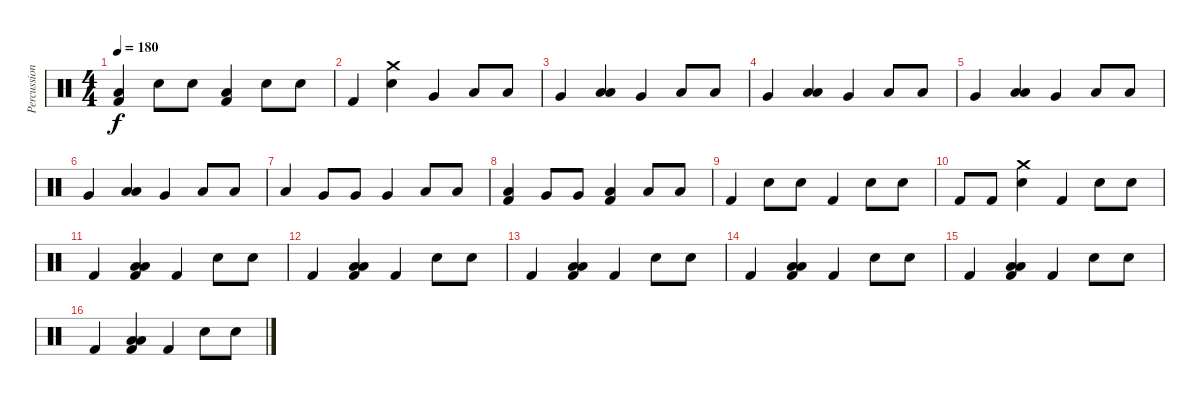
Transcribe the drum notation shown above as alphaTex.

\track ("Percussion" "Percussion") {instrument percussion}
\staff {score}
\articulation defaults
\ts (4 4)
\tempo 180
\clef neutral
\ks c
("Low Floor Tom (hit)" "Kick (hit) 2").4{dy f} "Snare (hit) 2".8 "Snare (hit) 2".8 ("Low Floor Tom (hit)" "Kick (hit) 2").4 "Snare (hit) 2".8 "Snare (hit) 2".8 |
"Kick (hit) 2".4 ("Crash medium (hit)" "Snare (hit) 2").4 "Very Low Tom (hit)".4 "Low Tom (hit)".8 "Low Tom (hit)".8 |
"Very Low Tom (hit)".4 ("Low Floor Tom (hit)" "Low Floor Tom (hit)").4 "Very Low Tom (hit)".4 "Low Tom (hit)".8 "Low Tom (hit)".8 |
"Very Low Tom (hit)".4 ("Low Floor Tom (hit)" "Low Floor Tom (hit)").4 "Very Low Tom (hit)".4 "Low Tom (hit)".8 "Low Tom (hit)".8 |
"Very Low Tom (hit)".4 ("Low Floor Tom (hit)" "Low Floor Tom (hit)").4 "Very Low Tom (hit)".4 "Low Tom (hit)".8 "Low Tom (hit)".8 |
"Very Low Tom (hit)".4 ("Low Floor Tom (hit)" "Low Floor Tom (hit)").4 "Very Low Tom (hit)".4 "Low Tom (hit)".8 "Low Tom (hit)".8 |
"Low Tom (hit)".4 "Very Low Tom (hit)".8 "Very Low Tom (hit)".8 "Very Low Tom (hit)".4 "Low Floor Tom (hit)".8 "Low Floor Tom (hit)".8 |
("Low Floor Tom (hit)" "Kick (hit) 2").4 "Very Low Tom (hit)".8 "Very Low Tom (hit)".8 ("Low Floor Tom (hit)" "Kick (hit) 2").4 "Low Tom (hit)".8 "Low Tom (hit)".8 |
"Kick (hit) 2".4 "Snare (hit) 2".8 "Snare (hit) 2".8 "Kick (hit) 2".4 "Snare (hit) 2".8 "Snare (hit) 2".8 |
"Kick (hit) 2".8 "Kick (hit) 2".8 ("Crash medium (hit)" "Snare (hit) 2").4 "Kick (hit) 2".4 "Snare (hit) 2".8 "Snare (hit) 2".8 |
"Kick (hit) 2".4 ("Low Floor Tom (hit)" "Low Floor Tom (hit)" "Kick (hit) 2").4 "Kick (hit) 2".4 "Snare (hit) 2".8 "Snare (hit) 2".8 |
"Kick (hit) 2".4 ("Low Floor Tom (hit)" "Low Floor Tom (hit)" "Kick (hit) 2").4 "Kick (hit) 2".4 "Snare (hit) 2".8 "Snare (hit) 2".8 |
"Kick (hit) 2".4 ("Low Floor Tom (hit)" "Low Floor Tom (hit)" "Kick (hit) 2").4 "Kick (hit) 2".4 "Snare (hit) 2".8 "Snare (hit) 2".8 |
"Kick (hit) 2".4 ("Low Floor Tom (hit)" "Low Floor Tom (hit)" "Kick (hit) 2").4 "Kick (hit) 2".4 "Snare (hit) 2".8 "Snare (hit) 2".8 |
"Kick (hit) 2".4 ("Low Floor Tom (hit)" "Low Floor Tom (hit)" "Kick (hit) 2").4 "Kick (hit) 2".4 "Snare (hit) 2".8 "Snare (hit) 2".8 |
"Kick (hit) 2".4 ("Low Floor Tom (hit)" "Low Floor Tom (hit)" "Kick (hit) 2").4 "Kick (hit) 2".4 "Snare (hit) 2".8 "Snare (hit) 2".8
